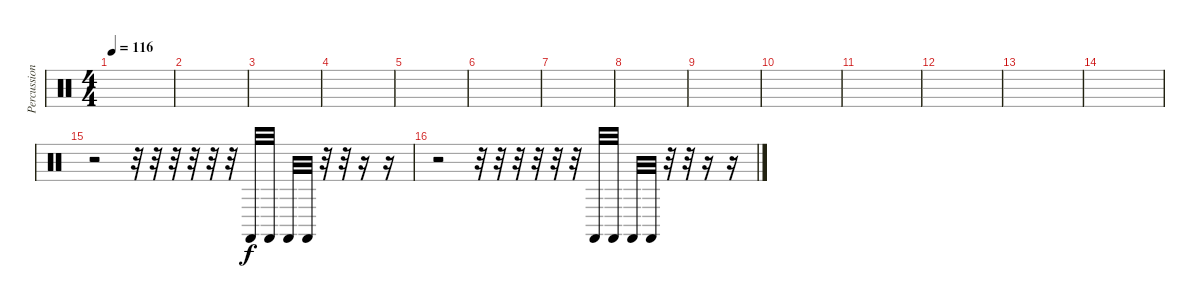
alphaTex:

\track ("Percussion" "Percussion") {instrument percussion}
\staff {score}
\articulation defaults
\ts (4 4)
\tempo 116
\clef neutral
\ks c
|
|
|
|
|
|
|
|
|
|
|
|
|
|
r.2 r.32 r.32 r.32 r.32 r.32 r.32 "Castanets (hit)".32 "Castanets (hit)".32 "Castanets (hit)".32 "Castanets (hit)".32 r.32 r.32 r.16 r.16 |
r.2 r.32 r.32 r.32 r.32 r.32 r.32 "Castanets (hit)".32 "Castanets (hit)".32 "Castanets (hit)".32 "Castanets (hit)".32 r.32 r.32 r.16 r.16
